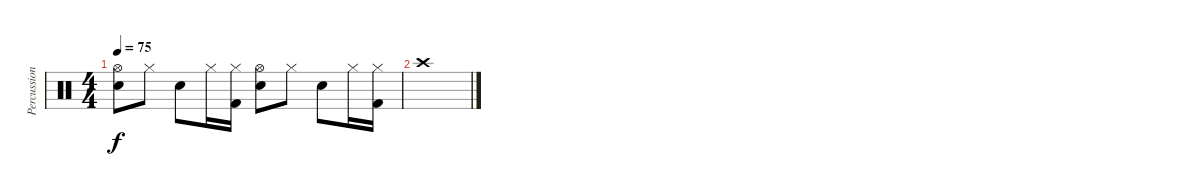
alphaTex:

\track ("Percussion" "Percussion") {instrument percussion}
\staff {score}
\articulation defaults
\ts (4 4)
\tempo 75
\clef neutral
\ks c
("Hi-Hat (open)" "Electric Snare (hit)").8{dy f} "Hi-Hat (closed)".8 "Electric Snare (hit)".8 "Hi-Hat (closed)".16 ("Hi-Hat (closed)" "Kick (hit) 2").16 ("Hi-Hat (open)" "Electric Snare (hit)").8 "Hi-Hat (closed)".8 "Electric Snare (hit)".8 "Hi-Hat (closed)".16 ("Hi-Hat (closed)" "Kick (hit) 2").16 |
"Crash high (hit)".1
